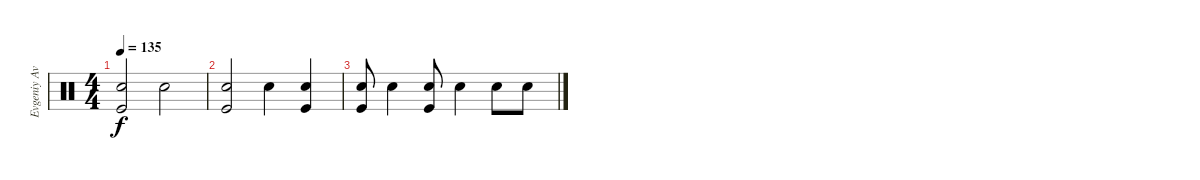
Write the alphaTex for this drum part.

\track ("Evgeniy Avdotin" "Evgeniy Av") {instrument percussion}
\staff {score}
\articulation defaults
\ts (4 4)
\tempo 135
\clef neutral
\ks c
("Snare (hit) 2" "Kick (hit)").2{dy f} "Snare (hit) 2".2 |
("Snare (hit) 2" "Kick (hit)").2 "Snare (hit) 2".4 ("Snare (hit) 2" "Kick (hit)").4 |
("Snare (hit) 2" "Kick (hit)").8 "Snare (hit) 2".4 ("Snare (hit) 2" "Kick (hit)").8 "Snare (hit) 2".4 "Snare (hit) 2".8 "Snare (hit) 2".8
